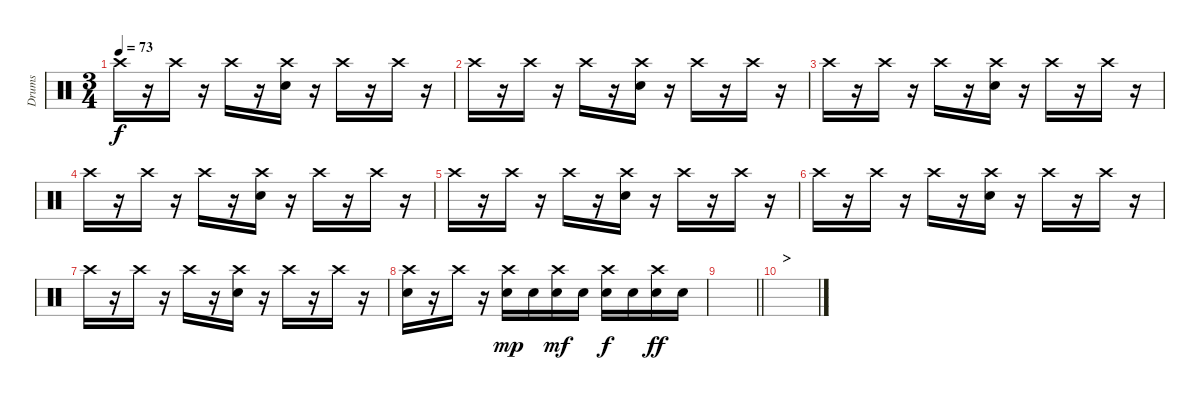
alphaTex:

\track ("Drums" "Drums") {instrument percussion}
\staff {score}
\articulation defaults
\ts (3 4)
\tempo 73
\clef neutral
\ks c "Crash high (hit)".16{dy f}
r.16 "Crash high (hit)".16 r.16 "Crash high (hit)".16 r.16 ("Crash high (hit)" "Electric Snare (hit)").16 r.16 "Crash high (hit)".16 r.16 "Crash high (hit)".16 r.16 |
"Crash high (hit)".16 r.16 "Crash high (hit)".16 r.16 "Crash high (hit)".16 r.16 ("Crash high (hit)" "Electric Snare (hit)").16 r.16 "Crash high (hit)".16 r.16 "Crash high (hit)".16 r.16 |
"Crash high (hit)".16 r.16 "Crash high (hit)".16 r.16 "Crash high (hit)".16 r.16 ("Crash high (hit)" "Electric Snare (hit)").16 r.16 "Crash high (hit)".16 r.16 "Crash high (hit)".16 r.16 |
"Crash high (hit)".16 r.16 "Crash high (hit)".16 r.16 "Crash high (hit)".16 r.16 ("Crash high (hit)" "Electric Snare (hit)").16 r.16 "Crash high (hit)".16 r.16 "Crash high (hit)".16 r.16 |
"Crash high (hit)".16 r.16 "Crash high (hit)".16 r.16 "Crash high (hit)".16 r.16 ("Crash high (hit)" "Electric Snare (hit)").16 r.16 "Crash high (hit)".16 r.16 "Crash high (hit)".16 r.16 |
"Crash high (hit)".16 r.16 "Crash high (hit)".16 r.16 "Crash high (hit)".16 r.16 ("Crash high (hit)" "Electric Snare (hit)").16 r.16 "Crash high (hit)".16 r.16 "Crash high (hit)".16 r.16 |
"Crash high (hit)".16 r.16 "Crash high (hit)".16 r.16 "Crash high (hit)".16 r.16 ("Crash high (hit)" "Electric Snare (hit)").16 r.16 "Crash high (hit)".16 r.16 "Crash high (hit)".16 r.16 |
("Crash high (hit)" "Electric Snare (hit)").16 r.16 "Crash high (hit)".16 r.16 ("Crash high (hit)" "Electric Snare (hit)").16{dy mp} "Electric Snare (hit)".16 ("Crash high (hit)" "Electric Snare (hit)").16{dy mf} "Electric Snare (hit)".16 ("Crash high (hit)" "Electric Snare (hit)").16{dy f} "Electric Snare (hit)".16 ("Crash high (hit)" "Electric Snare (hit)").16{dy ff} "Electric Snare (hit)".16 |
\barLineRight lightlight
|
\section ("" ">")
